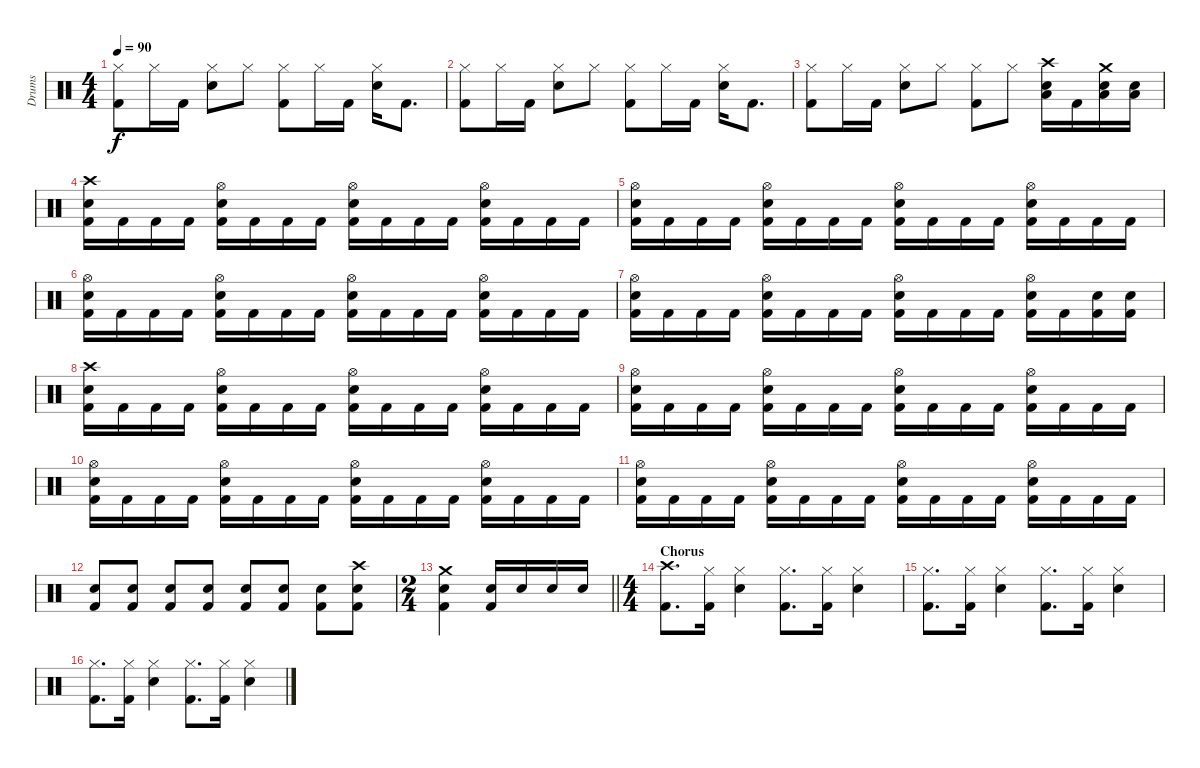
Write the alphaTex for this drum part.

\track ("Drums" "Drums") {instrument percussion}
\staff {score}
\articulation defaults
\ts (4 4)
\tempo 90
\clef neutral
\ks c
("Hi-Hat (closed)" "Kick (hit) 2").8{dy f} "Hi-Hat (closed)".16 "Kick (hit) 2".16 ("Hi-Hat (closed)" "Snare (hit) 2").8 "Hi-Hat (closed)".8 ("Hi-Hat (closed)" "Kick (hit) 2").8 "Hi-Hat (closed)".16 "Kick (hit) 2".16 ("Hi-Hat (closed)" "Snare (hit) 2").16 "Kick (hit) 2".8{d} |
("Hi-Hat (closed)" "Kick (hit) 2").8 "Hi-Hat (closed)".16 "Kick (hit) 2".16 ("Hi-Hat (closed)" "Snare (hit) 2").8 "Hi-Hat (closed)".8 ("Hi-Hat (closed)" "Kick (hit) 2").8 "Hi-Hat (closed)".16 "Kick (hit) 2".16 ("Hi-Hat (closed)" "Snare (hit) 2").16 "Kick (hit) 2".8{d} |
("Hi-Hat (closed)" "Kick (hit) 2").8 "Hi-Hat (closed)".16 "Kick (hit) 2".16 ("Hi-Hat (closed)" "Snare (hit) 2").8 "Hi-Hat (closed)".8 ("Hi-Hat (closed)" "Kick (hit) 2").8 "Hi-Hat (closed)".8 ("Crash high (hit)" "Snare (hit) 2" "Low Floor Tom (hit)").16 "Kick (hit) 2".16 ("Crash medium (hit)" "Snare (hit) 2" "Low Floor Tom (hit)").16 ("Snare (hit) 2" "Low Floor Tom (hit)").16 |
("Crash high (hit)" "Snare (hit) 2" "Kick (hit) 2").16 "Kick (hit) 2".16 "Kick (hit) 2".16 "Kick (hit) 2".16 ("Hi-Hat (open)" "Snare (hit) 2" "Kick (hit) 2").16 "Kick (hit) 2".16 "Kick (hit) 2".16 "Kick (hit) 2".16 ("Hi-Hat (open)" "Snare (hit) 2" "Kick (hit) 2").16 "Kick (hit) 2".16 "Kick (hit) 2".16 "Kick (hit) 2".16 ("Hi-Hat (open)" "Snare (hit) 2" "Kick (hit) 2").16 "Kick (hit) 2".16 "Kick (hit) 2".16 "Kick (hit) 2".16 |
("Hi-Hat (open)" "Snare (hit) 2" "Kick (hit) 2").16 "Kick (hit) 2".16 "Kick (hit) 2".16 "Kick (hit) 2".16 ("Hi-Hat (open)" "Snare (hit) 2" "Kick (hit) 2").16 "Kick (hit) 2".16 "Kick (hit) 2".16 "Kick (hit) 2".16 ("Hi-Hat (open)" "Snare (hit) 2" "Kick (hit) 2").16 "Kick (hit) 2".16 "Kick (hit) 2".16 "Kick (hit) 2".16 ("Hi-Hat (open)" "Snare (hit) 2" "Kick (hit) 2").16 "Kick (hit) 2".16 "Kick (hit) 2".16 "Kick (hit) 2".16 |
("Hi-Hat (open)" "Snare (hit) 2" "Kick (hit) 2").16 "Kick (hit) 2".16 "Kick (hit) 2".16 "Kick (hit) 2".16 ("Hi-Hat (open)" "Snare (hit) 2" "Kick (hit) 2").16 "Kick (hit) 2".16 "Kick (hit) 2".16 "Kick (hit) 2".16 ("Hi-Hat (open)" "Snare (hit) 2" "Kick (hit) 2").16 "Kick (hit) 2".16 "Kick (hit) 2".16 "Kick (hit) 2".16 ("Hi-Hat (open)" "Snare (hit) 2" "Kick (hit) 2").16 "Kick (hit) 2".16 "Kick (hit) 2".16 "Kick (hit) 2".16 |
("Hi-Hat (open)" "Snare (hit) 2" "Kick (hit) 2").16 "Kick (hit) 2".16 "Kick (hit) 2".16 "Kick (hit) 2".16 ("Hi-Hat (open)" "Snare (hit) 2" "Kick (hit) 2").16 "Kick (hit) 2".16 "Kick (hit) 2".16 "Kick (hit) 2".16 ("Hi-Hat (open)" "Snare (hit) 2" "Kick (hit) 2").16 "Kick (hit) 2".16 "Kick (hit) 2".16 "Kick (hit) 2".16 ("Hi-Hat (open)" "Snare (hit) 2" "Kick (hit) 2").16 "Kick (hit) 2".16 ("Snare (hit) 2" "Kick (hit) 2").16 ("Snare (hit) 2" "Kick (hit) 2").16 |
("Crash high (hit)" "Snare (hit) 2" "Kick (hit) 2").16 "Kick (hit) 2".16 "Kick (hit) 2".16 "Kick (hit) 2".16 ("Hi-Hat (open)" "Snare (hit) 2" "Kick (hit) 2").16 "Kick (hit) 2".16 "Kick (hit) 2".16 "Kick (hit) 2".16 ("Hi-Hat (open)" "Snare (hit) 2" "Kick (hit) 2").16 "Kick (hit) 2".16 "Kick (hit) 2".16 "Kick (hit) 2".16 ("Hi-Hat (open)" "Snare (hit) 2" "Kick (hit) 2").16 "Kick (hit) 2".16 "Kick (hit) 2".16 "Kick (hit) 2".16 |
("Hi-Hat (open)" "Snare (hit) 2" "Kick (hit) 2").16 "Kick (hit) 2".16 "Kick (hit) 2".16 "Kick (hit) 2".16 ("Hi-Hat (open)" "Snare (hit) 2" "Kick (hit) 2").16 "Kick (hit) 2".16 "Kick (hit) 2".16 "Kick (hit) 2".16 ("Hi-Hat (open)" "Snare (hit) 2" "Kick (hit) 2").16 "Kick (hit) 2".16 "Kick (hit) 2".16 "Kick (hit) 2".16 ("Hi-Hat (open)" "Snare (hit) 2" "Kick (hit) 2").16 "Kick (hit) 2".16 "Kick (hit) 2".16 "Kick (hit) 2".16 |
("Hi-Hat (open)" "Snare (hit) 2" "Kick (hit) 2").16 "Kick (hit) 2".16 "Kick (hit) 2".16 "Kick (hit) 2".16 ("Hi-Hat (open)" "Snare (hit) 2" "Kick (hit) 2").16 "Kick (hit) 2".16 "Kick (hit) 2".16 "Kick (hit) 2".16 ("Hi-Hat (open)" "Snare (hit) 2" "Kick (hit) 2").16 "Kick (hit) 2".16 "Kick (hit) 2".16 "Kick (hit) 2".16 ("Hi-Hat (open)" "Snare (hit) 2" "Kick (hit) 2").16 "Kick (hit) 2".16 "Kick (hit) 2".16 "Kick (hit) 2".16 |
("Hi-Hat (open)" "Snare (hit) 2" "Kick (hit) 2").16 "Kick (hit) 2".16 "Kick (hit) 2".16 "Kick (hit) 2".16 ("Hi-Hat (open)" "Snare (hit) 2" "Kick (hit) 2").16 "Kick (hit) 2".16 "Kick (hit) 2".16 "Kick (hit) 2".16 ("Hi-Hat (open)" "Snare (hit) 2" "Kick (hit) 2").16 "Kick (hit) 2".16 "Kick (hit) 2".16 "Kick (hit) 2".16 ("Hi-Hat (open)" "Snare (hit) 2" "Kick (hit) 2").16 "Kick (hit) 2".16 "Kick (hit) 2".16 "Kick (hit) 2".16 |
("Snare (hit) 2" "Kick (hit) 2").8 ("Snare (hit) 2" "Kick (hit) 2").8 ("Snare (hit) 2" "Kick (hit) 2").8 ("Snare (hit) 2" "Kick (hit) 2").8 ("Snare (hit) 2" "Kick (hit) 2").8 ("Snare (hit) 2" "Kick (hit) 2").8 ("Snare (hit) 2" "Kick (hit) 2").8 ("Crash high (hit)" "Snare (hit) 2" "Kick (hit) 2").8 |
\ts (2 4)
\barLineRight lightlight
("Crash medium (hit)" "Snare (hit) 2" "Kick (hit) 2").4 ("Snare (hit) 2" "Kick (hit) 2").16 "Snare (hit) 2".16 "Snare (hit) 2".16 "Snare (hit) 2".16 |
\ts (4 4)
\section ("" "Chorus")
("Crash high (hit)" "Kick (hit) 2").8{d} ("Hi-Hat (closed)" "Kick (hit) 2").16 ("Hi-Hat (closed)" "Snare (hit) 2").4 ("Hi-Hat (closed)" "Kick (hit) 2").8{d} ("Hi-Hat (closed)" "Kick (hit) 2").16 ("Hi-Hat (closed)" "Snare (hit) 2").4 |
("Hi-Hat (closed)" "Kick (hit) 2").8{d} ("Hi-Hat (closed)" "Kick (hit) 2").16 ("Hi-Hat (closed)" "Snare (hit) 2").4 ("Hi-Hat (closed)" "Kick (hit) 2").8{d} ("Hi-Hat (closed)" "Kick (hit) 2").16 ("Hi-Hat (closed)" "Snare (hit) 2").4 |
("Hi-Hat (closed)" "Kick (hit) 2").8{d} ("Hi-Hat (closed)" "Kick (hit) 2").16 ("Hi-Hat (closed)" "Snare (hit) 2").4 ("Hi-Hat (closed)" "Kick (hit) 2").8{d} ("Hi-Hat (closed)" "Kick (hit) 2").16 ("Hi-Hat (closed)" "Snare (hit) 2").4
